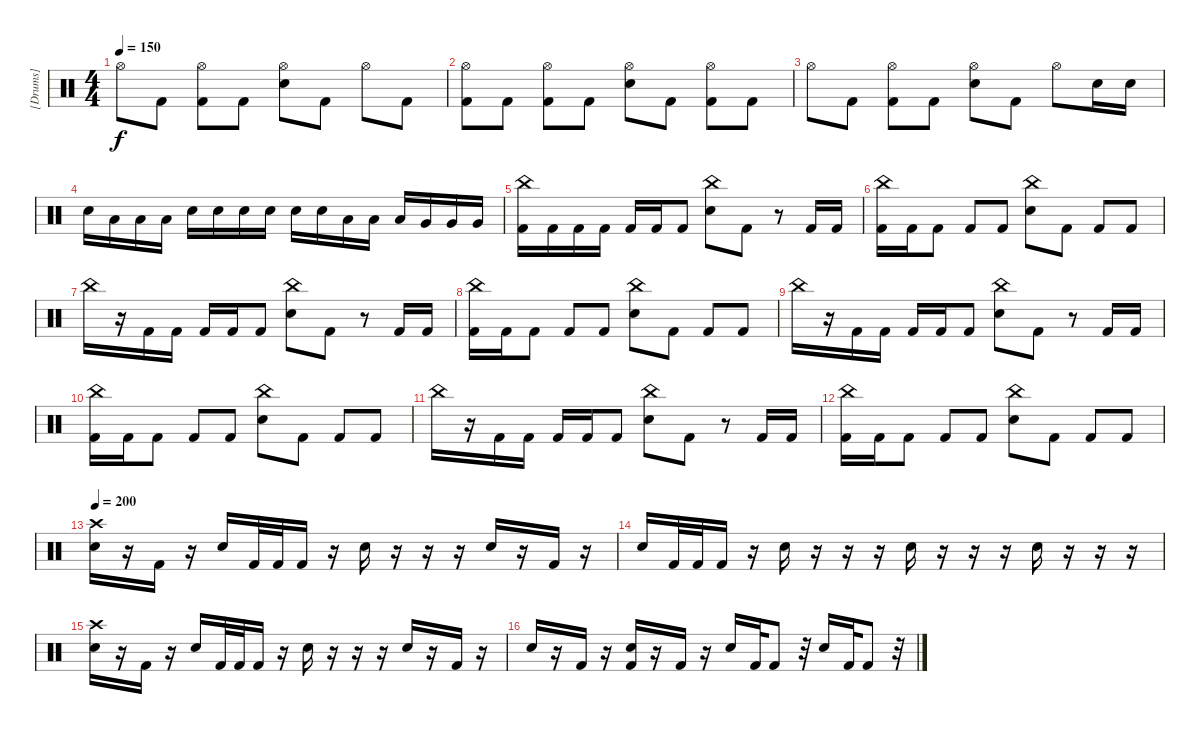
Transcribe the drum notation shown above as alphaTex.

\track ("[Drums]" "[Drums]") {instrument percussion}
\staff {score}
\articulation defaults
\ts (4 4)
\tempo 150
\clef neutral
\ks c "Hi-Hat (open)".8{dy f} "Kick (hit) 2".8
("Hi-Hat (open)" "Kick (hit) 2").8 "Kick (hit) 2".8 ("Hi-Hat (open)" "Electric Snare (hit)").8 "Kick (hit) 2".8 "Hi-Hat (open)".8 "Kick (hit) 2".8 |
("Hi-Hat (open)" "Kick (hit) 2").8 "Kick (hit) 2".8 ("Hi-Hat (open)" "Kick (hit) 2").8 "Kick (hit) 2".8 ("Hi-Hat (open)" "Electric Snare (hit)").8 "Kick (hit) 2".8 ("Hi-Hat (open)" "Kick (hit) 2").8 "Kick (hit) 2".8 |
"Hi-Hat (open)".8 "Kick (hit) 2".8 ("Hi-Hat (open)" "Kick (hit) 2").8 "Kick (hit) 2".8 ("Hi-Hat (open)" "Electric Snare (hit)").8 "Kick (hit) 2".8 "Hi-Hat (open)".8 "Electric Snare (hit)".16 "Electric Snare (hit)".16 |
"Electric Snare (hit)".16 "Low Tom (hit)".16 "Low Tom (hit)".16 "Low Tom (hit)".16 "Electric Snare (hit)".16 "Electric Snare (hit)".16 "Electric Snare (hit)".16 "Electric Snare (hit)".16 "Electric Snare (hit)".16 "Electric Snare (hit)".16 "Low Tom (hit)".16 "Low Tom (hit)".16 "Low Tom (hit)".16 "Very Low Tom (hit)".16 "Very Low Tom (hit)".16 "Very Low Tom (hit)".16 |
("China (hit)" "Kick (hit) 2").16 "Kick (hit) 2".16 "Kick (hit) 2".16 "Kick (hit) 2".16 "Kick (hit) 2".16 "Kick (hit) 2".16 "Kick (hit) 2".8 ("China (hit)" "Electric Snare (hit)").8 "Kick (hit) 2".8 r.8 "Kick (hit) 2".16 "Kick (hit) 2".16 |
("China (hit)" "Kick (hit) 2").16 "Kick (hit) 2".16 "Kick (hit) 2".8 "Kick (hit) 2".8 "Kick (hit) 2".8 ("China (hit)" "Electric Snare (hit)").8 "Kick (hit) 2".8 "Kick (hit) 2".8 "Kick (hit) 2".8 |
"China (hit)".16 r.16 "Kick (hit) 2".16 "Kick (hit) 2".16 "Kick (hit) 2".16 "Kick (hit) 2".16 "Kick (hit) 2".8 ("China (hit)" "Electric Snare (hit)").8 "Kick (hit) 2".8 r.8 "Kick (hit) 2".16 "Kick (hit) 2".16 |
("China (hit)" "Kick (hit) 2").16 "Kick (hit) 2".16 "Kick (hit) 2".8 "Kick (hit) 2".8 "Kick (hit) 2".8 ("China (hit)" "Electric Snare (hit)").8 "Kick (hit) 2".8 "Kick (hit) 2".8 "Kick (hit) 2".8 |
"China (hit)".16 r.16 "Kick (hit) 2".16 "Kick (hit) 2".16 "Kick (hit) 2".16 "Kick (hit) 2".16 "Kick (hit) 2".8 ("China (hit)" "Electric Snare (hit)").8 "Kick (hit) 2".8 r.8 "Kick (hit) 2".16 "Kick (hit) 2".16 |
("China (hit)" "Kick (hit) 2").16 "Kick (hit) 2".16 "Kick (hit) 2".8 "Kick (hit) 2".8 "Kick (hit) 2".8 ("China (hit)" "Electric Snare (hit)").8 "Kick (hit) 2".8 "Kick (hit) 2".8 "Kick (hit) 2".8 |
"China (hit)".16 r.16 "Kick (hit) 2".16 "Kick (hit) 2".16 "Kick (hit) 2".16 "Kick (hit) 2".16 "Kick (hit) 2".8 ("China (hit)" "Electric Snare (hit)").8 "Kick (hit) 2".8 r.8 "Kick (hit) 2".16 "Kick (hit) 2".16 |
("China (hit)" "Kick (hit) 2").16 "Kick (hit) 2".16 "Kick (hit) 2".8 "Kick (hit) 2".8 "Kick (hit) 2".8 ("China (hit)" "Electric Snare (hit)").8 "Kick (hit) 2".8 "Kick (hit) 2".8 "Kick (hit) 2".8 |
\tempo 200
("Crash high (hit)" "Electric Snare (hit)").16 r.16 "Kick (hit) 2".16 r.16 "Electric Snare (hit)".16 "Kick (hit) 2".32 "Kick (hit) 2".32 "Kick (hit) 2".16 r.16 "Electric Snare (hit)".16 r.16 r.16 r.16 "Electric Snare (hit)".16 r.16 "Kick (hit) 2".16 r.16 |
"Electric Snare (hit)".16 "Kick (hit) 2".32 "Kick (hit) 2".32 "Kick (hit) 2".16 r.16 "Electric Snare (hit)".16 r.16 r.16 r.16 "Electric Snare (hit)".16 r.16 r.16 r.16 "Electric Snare (hit)".16 r.16 r.16 r.16 |
("Crash high (hit)" "Electric Snare (hit)").16 r.16 "Kick (hit) 2".16 r.16 "Electric Snare (hit)".16 "Kick (hit) 2".32 "Kick (hit) 2".32 "Kick (hit) 2".16 r.16 "Electric Snare (hit)".16 r.16 r.16 r.16 "Electric Snare (hit)".16 r.16 "Kick (hit) 2".16 r.16 |
"Electric Snare (hit)".16 r.16 "Kick (hit) 2".16 r.16 ("Electric Snare (hit)" "Kick (hit) 2").16 r.16 "Kick (hit) 2".16 r.16 "Electric Snare (hit)".16 "Kick (hit) 2".32 "Kick (hit) 2".8 r.32 "Electric Snare (hit)".16 "Kick (hit) 2".32 "Kick (hit) 2".8 r.32
